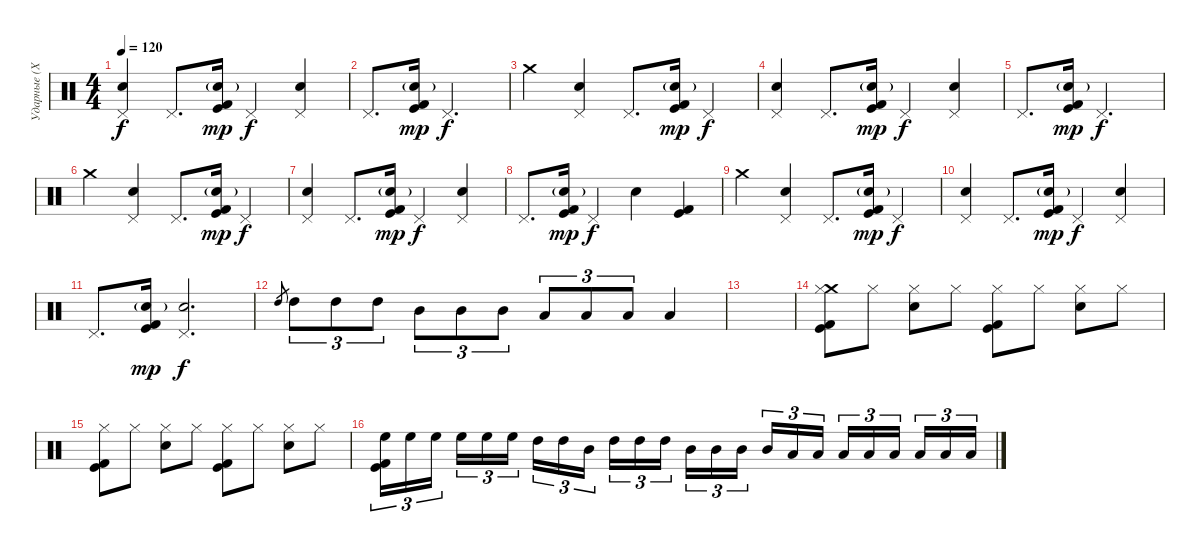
\track ("Ударные (Хеллхаммер)" "Ударные (Х") {instrument percussion}
\staff {score}
\articulation defaults
\ts (4 4)
\tempo 120
\clef neutral
\ks c
("Pedal Hi-Hat (hit)" "Electric Snare (hit)").4{dy f} "Pedal Hi-Hat (hit)".8{d} ("Electric Snare (hit)"{g} "Kick (hit) 2" "Kick (hit)").16{dy mp} "Pedal Hi-Hat (hit)".4{dy f} ("Pedal Hi-Hat (hit)" "Electric Snare (hit)").4 |
"Pedal Hi-Hat (hit)".8{d} ("Electric Snare (hit)"{g} "Kick (hit) 2" "Kick (hit)").16{dy mp} "Pedal Hi-Hat (hit)".2{d dy f} |
"Crash medium (hit)".4 ("Pedal Hi-Hat (hit)" "Electric Snare (hit)").4 "Pedal Hi-Hat (hit)".8{d} ("Electric Snare (hit)"{g} "Kick (hit) 2" "Kick (hit)").16{dy mp} "Pedal Hi-Hat (hit)".4{dy f} |
("Pedal Hi-Hat (hit)" "Electric Snare (hit)").4 "Pedal Hi-Hat (hit)".8{d} ("Electric Snare (hit)"{g} "Kick (hit) 2" "Kick (hit)").16{dy mp} "Pedal Hi-Hat (hit)".4{dy f} ("Pedal Hi-Hat (hit)" "Electric Snare (hit)").4 |
"Pedal Hi-Hat (hit)".8{d} ("Electric Snare (hit)"{g} "Kick (hit) 2" "Kick (hit)").16{dy mp} "Pedal Hi-Hat (hit)".2{d dy f} |
"Crash medium (hit)".4 ("Pedal Hi-Hat (hit)" "Electric Snare (hit)").4 "Pedal Hi-Hat (hit)".8{d} ("Electric Snare (hit)"{g} "Kick (hit) 2" "Kick (hit)").16{dy mp} "Pedal Hi-Hat (hit)".4{dy f} |
("Pedal Hi-Hat (hit)" "Electric Snare (hit)").4 "Pedal Hi-Hat (hit)".8{d} ("Electric Snare (hit)"{g} "Kick (hit) 2" "Kick (hit)").16{dy mp} "Pedal Hi-Hat (hit)".4{dy f} ("Pedal Hi-Hat (hit)" "Electric Snare (hit)").4 |
"Pedal Hi-Hat (hit)".8{d} ("Electric Snare (hit)"{g} "Kick (hit) 2" "Kick (hit)").16{dy mp} "Pedal Hi-Hat (hit)".4{dy f} "Electric Snare (hit)".4 ("Kick (hit) 2" "Kick (hit)").4 |
"Crash medium (hit)".4 ("Pedal Hi-Hat (hit)" "Electric Snare (hit)").4 "Pedal Hi-Hat (hit)".8{d} ("Electric Snare (hit)"{g} "Kick (hit) 2" "Kick (hit)").16{dy mp} "Pedal Hi-Hat (hit)".4{dy f} |
("Pedal Hi-Hat (hit)" "Electric Snare (hit)").4 "Pedal Hi-Hat (hit)".8{d} ("Electric Snare (hit)"{g} "Kick (hit) 2" "Kick (hit)").16{dy mp} "Pedal Hi-Hat (hit)".4{dy f} ("Pedal Hi-Hat (hit)" "Electric Snare (hit)").4 |
"Pedal Hi-Hat (hit)".8{d} ("Electric Snare (hit)"{g} "Kick (hit) 2" "Kick (hit)").16{dy mp} ("Pedal Hi-Hat (hit)" "Electric Snare (hit)").2{d dy f} |
"High Tom (hit)".8{gr} "High Tom (hit)".8{tu (3 2)} "High Tom (hit)".8{tu (3 2)} "High Tom (hit)".8{tu (3 2)} "Mid Tom (hit)".8{tu (3 2)} "Mid Tom (hit)".8{tu (3 2)} "Mid Tom (hit)".8{tu (3 2)} "Low Tom (hit)".8{tu (3 2)} "Low Tom (hit)".8{tu (3 2)} "Low Tom (hit)".8{tu (3 2)} "Low Tom (hit)".4 |
|
("Crash medium (hit)" "Hi-Hat (closed)" "Kick (hit) 2" "Kick (hit)").8 "Hi-Hat (closed)".8 ("Hi-Hat (closed)" "Electric Snare (hit)").8 "Hi-Hat (closed)".8 ("Hi-Hat (closed)" "Kick (hit) 2" "Kick (hit)").8 "Hi-Hat (closed)".8 ("Hi-Hat (closed)" "Electric Snare (hit)").8 "Hi-Hat (closed)".8 |
("Hi-Hat (closed)" "Kick (hit) 2" "Kick (hit)").8 "Hi-Hat (closed)".8 ("Hi-Hat (closed)" "Electric Snare (hit)").8 "Hi-Hat (closed)".8 ("Hi-Hat (closed)" "Kick (hit) 2" "Kick (hit)").8 "Hi-Hat (closed)".8 ("Hi-Hat (closed)" "Electric Snare (hit)").8 "Hi-Hat (closed)".8 |
("High Floor Tom (hit)" "Kick (hit) 2" "Kick (hit)").16{tu (3 2)} "High Floor Tom (hit)".16{tu (3 2)} "High Floor Tom (hit)".16{tu (3 2) beam splitsecondary} "High Floor Tom (hit)".16{tu (3 2)} "High Floor Tom (hit)".16{tu (3 2)} "High Floor Tom (hit)".16{tu (3 2)} "High Tom (hit)".16{tu (3 2)} "High Tom (hit)".16{tu (3 2)} "Mid Tom (hit)".16{tu (3 2) beam splitsecondary} "High Tom (hit)".16{tu (3 2)} "High Tom (hit)".16{tu (3 2)} "High Tom (hit)".16{tu (3 2)} "Mid Tom (hit)".16{tu (3 2)} "Mid Tom (hit)".16{tu (3 2)} "Mid Tom (hit)".16{tu (3 2) beam splitsecondary} "Mid Tom (hit)".16{tu (3 2)} "Low Tom (hit)".16{tu (3 2)} "Low Tom (hit)".16{tu (3 2)} "Low Tom (hit)".16{tu (3 2)} "Low Tom (hit)".16{tu (3 2)} "Low Tom (hit)".16{tu (3 2) beam splitsecondary} "Low Tom (hit)".16{tu (3 2)} "Low Tom (hit)".16{tu (3 2)} "Low Tom (hit)".16{tu (3 2)}
